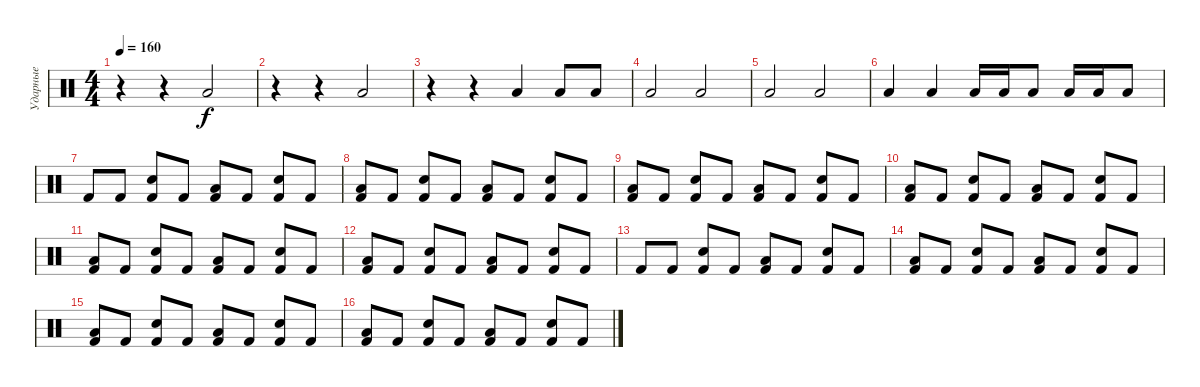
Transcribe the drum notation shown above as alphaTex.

\track ("Ударные" "Ударные") {instrument percussion}
\staff {score}
\articulation defaults
\ts (4 4)
\tempo 160
\clef neutral
\ks c
r.4{dy f} r.4 "Low Tom (hit)".2 |
r.4 r.4 "Low Tom (hit)".2 |
r.4 r.4 "Low Tom (hit)".4 "Low Tom (hit)".8 "Low Tom (hit)".8 |
"Low Tom (hit)".2 "Low Tom (hit)".2 |
"Low Tom (hit)".2 "Low Tom (hit)".2 |
"Low Tom (hit)".4 "Low Tom (hit)".4 "Low Tom (hit)".16 "Low Tom (hit)".16 "Low Tom (hit)".8 "Low Tom (hit)".16 "Low Tom (hit)".16 "Low Tom (hit)".8 |
"Kick (hit) 2".8 "Kick (hit) 2".8 ("Snare (hit) 2" "Kick (hit) 2").8 "Kick (hit) 2".8 ("Low Tom (hit)" "Kick (hit) 2").8 "Kick (hit) 2".8 ("Snare (hit) 2" "Kick (hit) 2").8 "Kick (hit) 2".8 |
("Low Tom (hit)" "Kick (hit) 2").8 "Kick (hit) 2".8 ("Snare (hit) 2" "Kick (hit) 2").8 "Kick (hit) 2".8 ("Low Tom (hit)" "Kick (hit) 2").8 "Kick (hit) 2".8 ("Snare (hit) 2" "Kick (hit) 2").8 "Kick (hit) 2".8 |
("Low Tom (hit)" "Kick (hit) 2").8 "Kick (hit) 2".8 ("Snare (hit) 2" "Kick (hit) 2").8 "Kick (hit) 2".8 ("Low Tom (hit)" "Kick (hit) 2").8 "Kick (hit) 2".8 ("Snare (hit) 2" "Kick (hit) 2").8 "Kick (hit) 2".8 |
("Low Tom (hit)" "Kick (hit) 2").8 "Kick (hit) 2".8 ("Snare (hit) 2" "Kick (hit) 2").8 "Kick (hit) 2".8 ("Low Tom (hit)" "Kick (hit) 2").8 "Kick (hit) 2".8 ("Snare (hit) 2" "Kick (hit) 2").8 "Kick (hit) 2".8 |
("Low Tom (hit)" "Kick (hit) 2").8 "Kick (hit) 2".8 ("Snare (hit) 2" "Kick (hit) 2").8 "Kick (hit) 2".8 ("Low Tom (hit)" "Kick (hit) 2").8 "Kick (hit) 2".8 ("Snare (hit) 2" "Kick (hit) 2").8 "Kick (hit) 2".8 |
("Low Tom (hit)" "Kick (hit) 2").8 "Kick (hit) 2".8 ("Snare (hit) 2" "Kick (hit) 2").8 "Kick (hit) 2".8 ("Low Tom (hit)" "Kick (hit) 2").8 "Kick (hit) 2".8 ("Snare (hit) 2" "Kick (hit) 2").8 "Kick (hit) 2".8 |
"Kick (hit) 2".8 "Kick (hit) 2".8 ("Snare (hit) 2" "Kick (hit) 2").8 "Kick (hit) 2".8 ("Low Tom (hit)" "Kick (hit) 2").8 "Kick (hit) 2".8 ("Snare (hit) 2" "Kick (hit) 2").8 "Kick (hit) 2".8 |
("Low Tom (hit)" "Kick (hit) 2").8 "Kick (hit) 2".8 ("Snare (hit) 2" "Kick (hit) 2").8 "Kick (hit) 2".8 ("Low Tom (hit)" "Kick (hit) 2").8 "Kick (hit) 2".8 ("Snare (hit) 2" "Kick (hit) 2").8 "Kick (hit) 2".8 |
("Low Tom (hit)" "Kick (hit) 2").8 "Kick (hit) 2".8 ("Snare (hit) 2" "Kick (hit) 2").8 "Kick (hit) 2".8 ("Low Tom (hit)" "Kick (hit) 2").8 "Kick (hit) 2".8 ("Snare (hit) 2" "Kick (hit) 2").8 "Kick (hit) 2".8 |
("Low Tom (hit)" "Kick (hit) 2").8 "Kick (hit) 2".8 ("Snare (hit) 2" "Kick (hit) 2").8 "Kick (hit) 2".8 ("Low Tom (hit)" "Kick (hit) 2").8 "Kick (hit) 2".8 ("Snare (hit) 2" "Kick (hit) 2").8 "Kick (hit) 2".8
